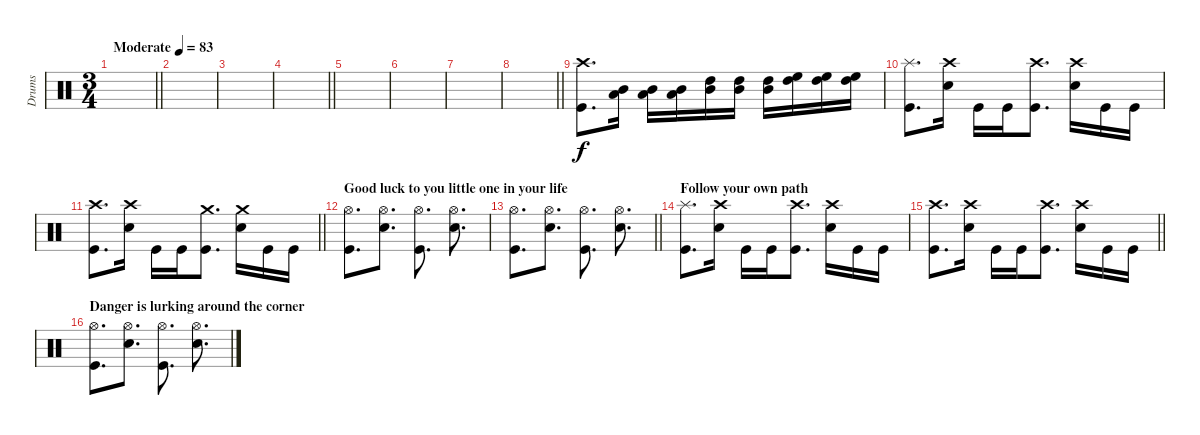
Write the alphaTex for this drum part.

\track ("Drums" "Drums") {instrument percussion}
\staff {score}
\articulation defaults
\ts (3 4)
\tempo (83 "Moderate")
\clef neutral
\barLineRight lightlight
\ks c
|
|
|
\barLineRight lightlight
|
|
|
|
\barLineRight lightlight
|
("Crash high (hit)" "Kick (hit)").8{d} ("Mid Tom (hit)" "Low Tom (hit)").16 ("Mid Tom (hit)" "Low Tom (hit)").16 ("Mid Tom (hit)" "Low Tom (hit)").16 ("High Tom (hit)" "Mid Tom (hit)").16 ("High Tom (hit)" "Mid Tom (hit)").16 ("High Tom (hit)" "Mid Tom (hit)").16 ("High Floor Tom (hit)" "High Tom (hit)").16 ("High Floor Tom (hit)" "High Tom (hit)").16 ("High Floor Tom (hit)" "High Tom (hit)").16 |
("Splash (hit)" "Kick (hit)").8{d} ("Crash high (hit)" "Snare (hit) 2").16 "Kick (hit)".16 "Kick (hit)".16 ("Crash high (hit)" "Kick (hit)").8{d} ("Crash high (hit)" "Snare (hit) 2").16 "Kick (hit)".16 "Kick (hit)".16 |
\barLineRight lightlight
("Crash high (hit)" "Kick (hit)").8{d} ("Crash high (hit)" "Snare (hit) 2").16 "Kick (hit)".16 "Kick (hit)".16 ("Crash medium (hit)" "Kick (hit)").8{d} ("Crash medium (hit)" "Snare (hit) 2").16 "Kick (hit)".16 "Kick (hit)".16 |
\section ("" "Good luck to you little one in your life")
("Hi-Hat (open)" "Kick (hit)").8{d} ("Hi-Hat (open)" "Snare (hit) 2").8{d} ("Hi-Hat (open)" "Kick (hit)").8{d} ("Hi-Hat (open)" "Snare (hit) 2").8{d} |
\barLineRight lightlight
("Hi-Hat (open)" "Kick (hit)").8{d} ("Hi-Hat (open)" "Snare (hit) 2").8{d} ("Hi-Hat (open)" "Kick (hit)").8{d} ("Hi-Hat (open)" "Snare (hit) 2").8{d} |
\section ("" "Follow your own path")
("Splash (hit)" "Kick (hit)").8{d} ("Crash high (hit)" "Snare (hit) 2").16 "Kick (hit)".16 "Kick (hit)".16 ("Crash high (hit)" "Kick (hit)").8{d} ("Crash high (hit)" "Snare (hit) 2").16 "Kick (hit)".16 "Kick (hit)".16 |
\barLineRight lightlight
("Crash high (hit)" "Kick (hit)").8{d} ("Crash high (hit)" "Snare (hit) 2").16 "Kick (hit)".16 "Kick (hit)".16 ("Crash high (hit)" "Kick (hit)").8{d} ("Crash high (hit)" "Snare (hit) 2").16 "Kick (hit)".16 "Kick (hit)".16 |
\section ("" "Danger is lurking around the corner")
("Hi-Hat (open)" "Kick (hit)").8{d} ("Hi-Hat (open)" "Snare (hit) 2").8{d} ("Hi-Hat (open)" "Kick (hit)").8{d} ("Hi-Hat (open)" "Snare (hit) 2").8{d}
